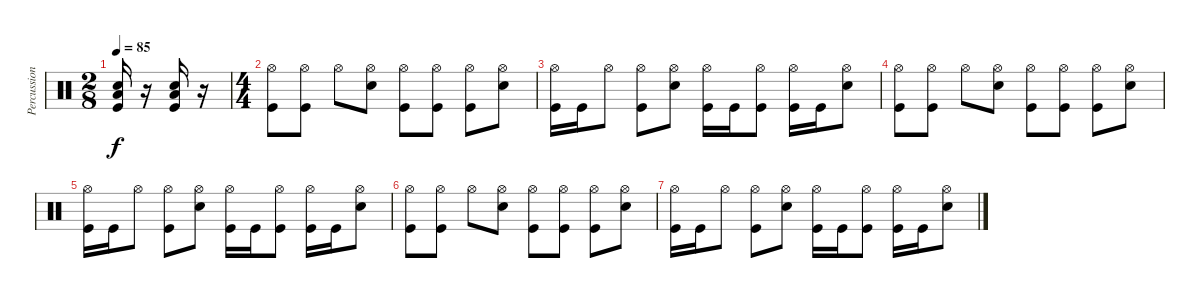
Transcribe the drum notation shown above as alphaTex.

\track ("Percussion" "Percussion") {instrument percussion}
\staff {score}
\articulation defaults
\ts (2 8)
\tempo 85
\clef neutral
\ks c
("Low Floor Tom (hit)" "Snare (hit) 2" "Kick (hit)").16{dy f} r.16 ("Low Floor Tom (hit)" "Snare (hit) 2" "Kick (hit)").16 r.16 |
\ts (4 4)
("Hi-Hat (open)" "Kick (hit)").8 ("Hi-Hat (open)" "Kick (hit)").8 "Hi-Hat (open)".8 ("Hi-Hat (open)" "Snare (hit) 2").8 ("Hi-Hat (open)" "Kick (hit)").8 ("Hi-Hat (open)" "Kick (hit)").8 ("Hi-Hat (open)" "Kick (hit)").8 ("Hi-Hat (open)" "Snare (hit) 2").8 |
("Hi-Hat (open)" "Kick (hit)").16 "Kick (hit)".16 "Hi-Hat (open)".8 ("Hi-Hat (open)" "Kick (hit)").8 ("Hi-Hat (open)" "Snare (hit) 2").8 ("Hi-Hat (open)" "Kick (hit)").16 "Kick (hit)".16 ("Hi-Hat (open)" "Kick (hit)").8 ("Hi-Hat (open)" "Kick (hit)").16 "Kick (hit)".16 ("Hi-Hat (open)" "Snare (hit) 2").8 |
("Hi-Hat (open)" "Kick (hit)").8 ("Hi-Hat (open)" "Kick (hit)").8 "Hi-Hat (open)".8 ("Hi-Hat (open)" "Snare (hit) 2").8 ("Hi-Hat (open)" "Kick (hit)").8 ("Hi-Hat (open)" "Kick (hit)").8 ("Hi-Hat (open)" "Kick (hit)").8 ("Hi-Hat (open)" "Snare (hit) 2").8 |
("Hi-Hat (open)" "Kick (hit)").16 "Kick (hit)".16 "Hi-Hat (open)".8 ("Hi-Hat (open)" "Kick (hit)").8 ("Hi-Hat (open)" "Snare (hit) 2").8 ("Hi-Hat (open)" "Kick (hit)").16 "Kick (hit)".16 ("Hi-Hat (open)" "Kick (hit)").8 ("Hi-Hat (open)" "Kick (hit)").16 "Kick (hit)".16 ("Hi-Hat (open)" "Snare (hit) 2").8 |
("Hi-Hat (open)" "Kick (hit)").8 ("Hi-Hat (open)" "Kick (hit)").8 "Hi-Hat (open)".8 ("Hi-Hat (open)" "Snare (hit) 2").8 ("Hi-Hat (open)" "Kick (hit)").8 ("Hi-Hat (open)" "Kick (hit)").8 ("Hi-Hat (open)" "Kick (hit)").8 ("Hi-Hat (open)" "Snare (hit) 2").8 |
("Hi-Hat (open)" "Kick (hit)").16 "Kick (hit)".16 "Hi-Hat (open)".8 ("Hi-Hat (open)" "Kick (hit)").8 ("Hi-Hat (open)" "Snare (hit) 2").8 ("Hi-Hat (open)" "Kick (hit)").16 "Kick (hit)".16 ("Hi-Hat (open)" "Kick (hit)").8 ("Hi-Hat (open)" "Kick (hit)").16 "Kick (hit)".16 ("Hi-Hat (open)" "Snare (hit) 2").8
